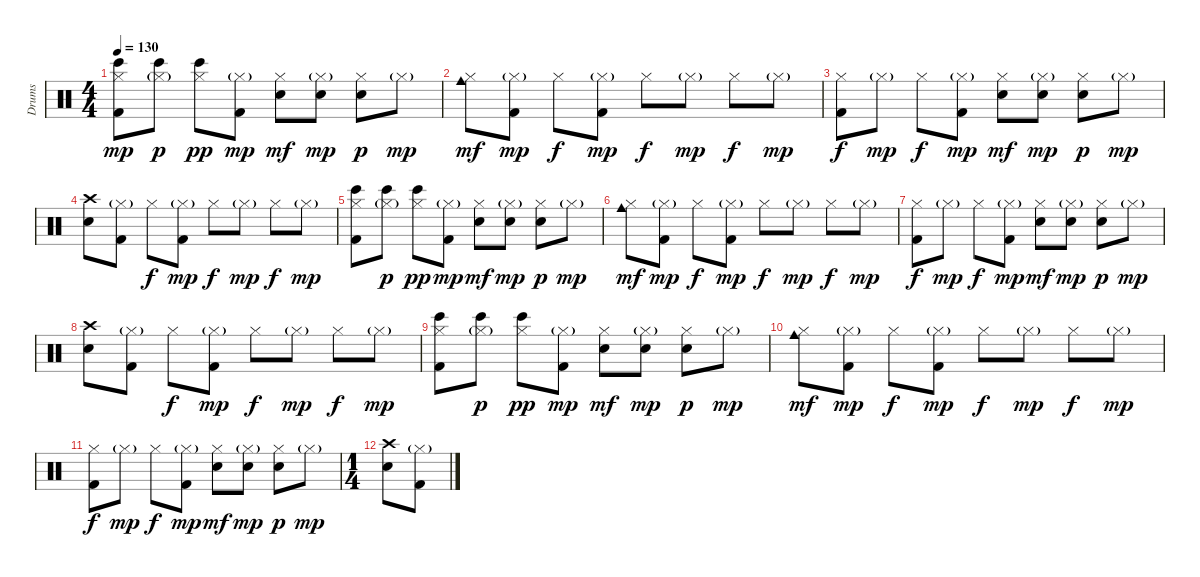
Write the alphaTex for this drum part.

\track ("Drums" "Drums") {instrument percussion}
\staff {score}
\articulation defaults
\ts (4 4)
\tempo 130
\clef neutral
\ks c
("Hi-Hat (closed)" "Bongo High (hit)" "Kick (hit) 2").8{dy mp} ("Hi-Hat (closed)"{g} "Bongo High (hit)").8{dy p} ("Hi-Hat (closed)" "Bongo High (hit)").8{dy pp} ("Hi-Hat (closed)"{g} "Kick (hit) 2").8{dy mp} ("Hi-Hat (closed)" "Hand Clap (hit)").8{dy mf} ("Hi-Hat (closed)"{g} "Hand Clap (hit)").8{dy mp} ("Hi-Hat (closed)" "Hand Clap (hit)").8{dy p} "Hi-Hat (closed)"{g}.8{dy mp} |
("Hi-Hat (closed)" "Cowbell medium (hit)").8{dy mf volume 8} ("Hi-Hat (closed)"{g} "Kick (hit) 2").8{dy mp} "Hi-Hat (closed)".8{dy f} ("Hi-Hat (closed)"{g} "Kick (hit) 2").8{dy mp} "Hi-Hat (closed)".8{dy f} "Hi-Hat (closed)"{g}.8{dy mp} "Hi-Hat (closed)".8{dy f} "Hi-Hat (closed)"{g}.8{dy mp} |
("Hi-Hat (closed)" "Kick (hit) 2").8{dy f} "Hi-Hat (closed)"{g}.8{dy mp} "Hi-Hat (closed)".8{dy f} ("Hi-Hat (closed)"{g} "Kick (hit) 2").8{dy mp} ("Hi-Hat (closed)" "Hand Clap (hit)").8{dy mf} ("Hi-Hat (closed)"{g} "Hand Clap (hit)").8{dy mp} ("Hi-Hat (closed)" "Hand Clap (hit)").8{dy p} "Hi-Hat (closed)"{g}.8{dy mp} |
("Crash high (hit)" "Snare (hit) 2").8 ("Hi-Hat (closed)"{g} "Kick (hit) 2").8 "Hi-Hat (closed)".8{dy f} ("Hi-Hat (closed)"{g} "Kick (hit) 2").8{dy mp} "Hi-Hat (closed)".8{dy f} "Hi-Hat (closed)"{g}.8{dy mp} "Hi-Hat (closed)".8{dy f} "Hi-Hat (closed)"{g}.8{dy mp} |
("Hi-Hat (closed)" "Bongo High (hit)" "Kick (hit) 2").8 ("Hi-Hat (closed)"{g} "Bongo High (hit)").8{dy p} ("Hi-Hat (closed)" "Bongo High (hit)").8{dy pp} ("Hi-Hat (closed)"{g} "Kick (hit) 2").8{dy mp} ("Hi-Hat (closed)" "Hand Clap (hit)").8{dy mf} ("Hi-Hat (closed)"{g} "Hand Clap (hit)").8{dy mp} ("Hi-Hat (closed)" "Hand Clap (hit)").8{dy p} "Hi-Hat (closed)"{g}.8{dy mp} |
("Hi-Hat (closed)" "Cowbell medium (hit)").8{dy mf volume 4} ("Hi-Hat (closed)"{g} "Kick (hit) 2").8{dy mp} "Hi-Hat (closed)".8{dy f} ("Hi-Hat (closed)"{g} "Kick (hit) 2").8{dy mp} "Hi-Hat (closed)".8{dy f} "Hi-Hat (closed)"{g}.8{dy mp} "Hi-Hat (closed)".8{dy f} "Hi-Hat (closed)"{g}.8{dy mp} |
("Hi-Hat (closed)" "Kick (hit) 2").8{dy f} "Hi-Hat (closed)"{g}.8{dy mp} "Hi-Hat (closed)".8{dy f} ("Hi-Hat (closed)"{g} "Kick (hit) 2").8{dy mp} ("Hi-Hat (closed)" "Hand Clap (hit)").8{dy mf} ("Hi-Hat (closed)"{g} "Hand Clap (hit)").8{dy mp} ("Hi-Hat (closed)" "Hand Clap (hit)").8{dy p} "Hi-Hat (closed)"{g}.8{dy mp} |
("Crash high (hit)" "Snare (hit) 2").8 ("Hi-Hat (closed)"{g} "Kick (hit) 2").8 "Hi-Hat (closed)".8{dy f} ("Hi-Hat (closed)"{g} "Kick (hit) 2").8{dy mp} "Hi-Hat (closed)".8{dy f} "Hi-Hat (closed)"{g}.8{dy mp} "Hi-Hat (closed)".8{dy f} "Hi-Hat (closed)"{g}.8{dy mp} |
("Hi-Hat (closed)" "Bongo High (hit)" "Kick (hit) 2").8 ("Hi-Hat (closed)"{g} "Bongo High (hit)").8{dy p} ("Hi-Hat (closed)" "Bongo High (hit)").8{dy pp} ("Hi-Hat (closed)"{g} "Kick (hit) 2").8{dy mp} ("Hi-Hat (closed)" "Hand Clap (hit)").8{dy mf} ("Hi-Hat (closed)"{g} "Hand Clap (hit)").8{dy mp} ("Hi-Hat (closed)" "Hand Clap (hit)").8{dy p} "Hi-Hat (closed)"{g}.8{dy mp} |
("Hi-Hat (closed)" "Cowbell medium (hit)").8{dy mf volume 0} ("Hi-Hat (closed)"{g} "Kick (hit) 2").8{dy mp} "Hi-Hat (closed)".8{dy f} ("Hi-Hat (closed)"{g} "Kick (hit) 2").8{dy mp} "Hi-Hat (closed)".8{dy f} "Hi-Hat (closed)"{g}.8{dy mp} "Hi-Hat (closed)".8{dy f} "Hi-Hat (closed)"{g}.8{dy mp} |
("Hi-Hat (closed)" "Kick (hit) 2").8{dy f} "Hi-Hat (closed)"{g}.8{dy mp} "Hi-Hat (closed)".8{dy f} ("Hi-Hat (closed)"{g} "Kick (hit) 2").8{dy mp} ("Hi-Hat (closed)" "Hand Clap (hit)").8{dy mf} ("Hi-Hat (closed)"{g} "Hand Clap (hit)").8{dy mp} ("Hi-Hat (closed)" "Hand Clap (hit)").8{dy p} "Hi-Hat (closed)"{g}.8{dy mp} |
\ts (1 4)
("Crash high (hit)" "Snare (hit) 2").8 ("Hi-Hat (closed)"{g} "Kick (hit) 2").8
